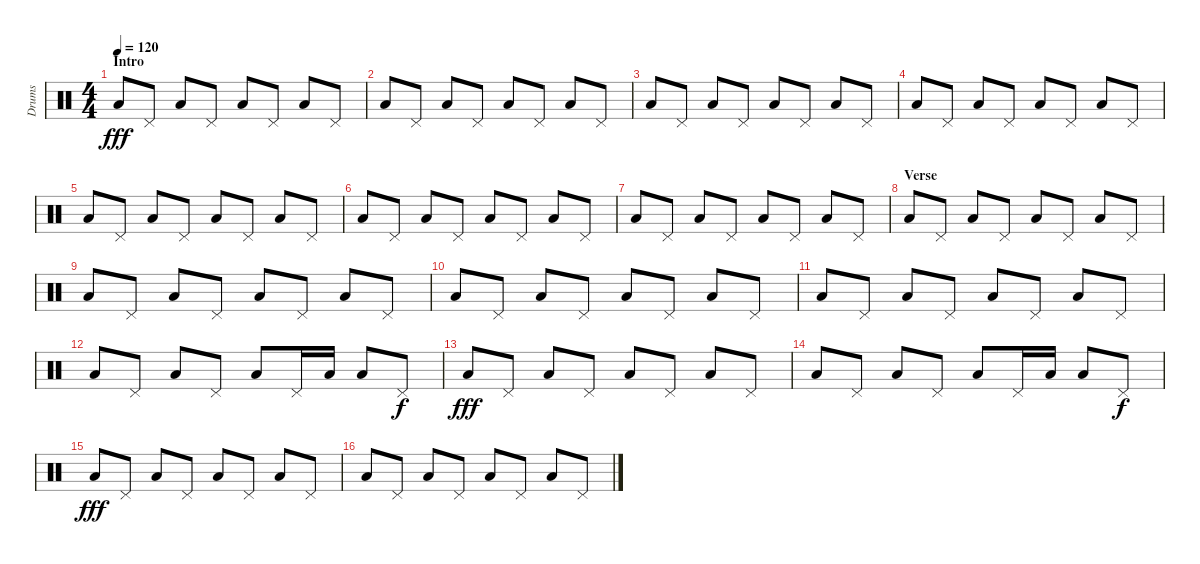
\track ("Drums" "Drums") {instrument percussion}
\staff {score}
\articulation defaults
\ts (4 4)
\section ("" "Intro")
\tempo 120
\clef neutral
\ks c "Low Floor Tom (hit)".8{dy fff} "Pedal Hi-Hat (hit)".8 "Low Floor Tom (hit)".8 "Pedal Hi-Hat (hit)".8 "Low Floor Tom (hit)".8 "Pedal Hi-Hat (hit)".8 "Low Floor Tom (hit)".8 "Pedal Hi-Hat (hit)".8
|
"Low Floor Tom (hit)".8 "Pedal Hi-Hat (hit)".8 "Low Floor Tom (hit)".8 "Pedal Hi-Hat (hit)".8 "Low Floor Tom (hit)".8 "Pedal Hi-Hat (hit)".8 "Low Floor Tom (hit)".8 "Pedal Hi-Hat (hit)".8 |
"Low Floor Tom (hit)".8 "Pedal Hi-Hat (hit)".8 "Low Floor Tom (hit)".8 "Pedal Hi-Hat (hit)".8 "Low Floor Tom (hit)".8 "Pedal Hi-Hat (hit)".8 "Low Floor Tom (hit)".8 "Pedal Hi-Hat (hit)".8 |
"Low Floor Tom (hit)".8 "Pedal Hi-Hat (hit)".8 "Low Floor Tom (hit)".8 "Pedal Hi-Hat (hit)".8 "Low Floor Tom (hit)".8 "Pedal Hi-Hat (hit)".8 "Low Floor Tom (hit)".8 "Pedal Hi-Hat (hit)".8 |
"Low Floor Tom (hit)".8 "Pedal Hi-Hat (hit)".8 "Low Floor Tom (hit)".8 "Pedal Hi-Hat (hit)".8 "Low Floor Tom (hit)".8 "Pedal Hi-Hat (hit)".8 "Low Floor Tom (hit)".8 "Pedal Hi-Hat (hit)".8 |
"Low Floor Tom (hit)".8 "Pedal Hi-Hat (hit)".8 "Low Floor Tom (hit)".8 "Pedal Hi-Hat (hit)".8 "Low Floor Tom (hit)".8 "Pedal Hi-Hat (hit)".8 "Low Floor Tom (hit)".8 "Pedal Hi-Hat (hit)".8 |
"Low Floor Tom (hit)".8 "Pedal Hi-Hat (hit)".8 "Low Floor Tom (hit)".8 "Pedal Hi-Hat (hit)".8 "Low Floor Tom (hit)".8 "Pedal Hi-Hat (hit)".8 "Low Floor Tom (hit)".8 "Pedal Hi-Hat (hit)".8 |
\section ("" "Verse")
"Low Floor Tom (hit)".8 "Pedal Hi-Hat (hit)".8 "Low Floor Tom (hit)".8 "Pedal Hi-Hat (hit)".8 "Low Floor Tom (hit)".8 "Pedal Hi-Hat (hit)".8 "Low Floor Tom (hit)".8 "Pedal Hi-Hat (hit)".8 |
"Low Floor Tom (hit)".8 "Pedal Hi-Hat (hit)".8 "Low Floor Tom (hit)".8 "Pedal Hi-Hat (hit)".8 "Low Floor Tom (hit)".8 "Pedal Hi-Hat (hit)".8 "Low Floor Tom (hit)".8 "Pedal Hi-Hat (hit)".8 |
"Low Floor Tom (hit)".8 "Pedal Hi-Hat (hit)".8 "Low Floor Tom (hit)".8 "Pedal Hi-Hat (hit)".8 "Low Floor Tom (hit)".8 "Pedal Hi-Hat (hit)".8 "Low Floor Tom (hit)".8 "Pedal Hi-Hat (hit)".8 |
"Low Floor Tom (hit)".8 "Pedal Hi-Hat (hit)".8 "Low Floor Tom (hit)".8 "Pedal Hi-Hat (hit)".8 "Low Floor Tom (hit)".8 "Pedal Hi-Hat (hit)".8 "Low Floor Tom (hit)".8 "Pedal Hi-Hat (hit)".8 |
"Low Floor Tom (hit)".8 "Pedal Hi-Hat (hit)".8 "Low Floor Tom (hit)".8 "Pedal Hi-Hat (hit)".8 "Low Floor Tom (hit)".8 "Pedal Hi-Hat (hit)".16 "Low Floor Tom (hit)".16 "Low Floor Tom (hit)".8 "Pedal Hi-Hat (hit)".8{dy f} |
"Low Floor Tom (hit)".8{dy fff} "Pedal Hi-Hat (hit)".8 "Low Floor Tom (hit)".8 "Pedal Hi-Hat (hit)".8 "Low Floor Tom (hit)".8 "Pedal Hi-Hat (hit)".8 "Low Floor Tom (hit)".8 "Pedal Hi-Hat (hit)".8 |
"Low Floor Tom (hit)".8 "Pedal Hi-Hat (hit)".8 "Low Floor Tom (hit)".8 "Pedal Hi-Hat (hit)".8 "Low Floor Tom (hit)".8 "Pedal Hi-Hat (hit)".16 "Low Floor Tom (hit)".16 "Low Floor Tom (hit)".8 "Pedal Hi-Hat (hit)".8{dy f} |
"Low Floor Tom (hit)".8{dy fff} "Pedal Hi-Hat (hit)".8 "Low Floor Tom (hit)".8 "Pedal Hi-Hat (hit)".8 "Low Floor Tom (hit)".8 "Pedal Hi-Hat (hit)".8 "Low Floor Tom (hit)".8 "Pedal Hi-Hat (hit)".8 |
"Low Floor Tom (hit)".8 "Pedal Hi-Hat (hit)".8 "Low Floor Tom (hit)".8 "Pedal Hi-Hat (hit)".8 "Low Floor Tom (hit)".8 "Pedal Hi-Hat (hit)".8 "Low Floor Tom (hit)".8 "Pedal Hi-Hat (hit)".8
